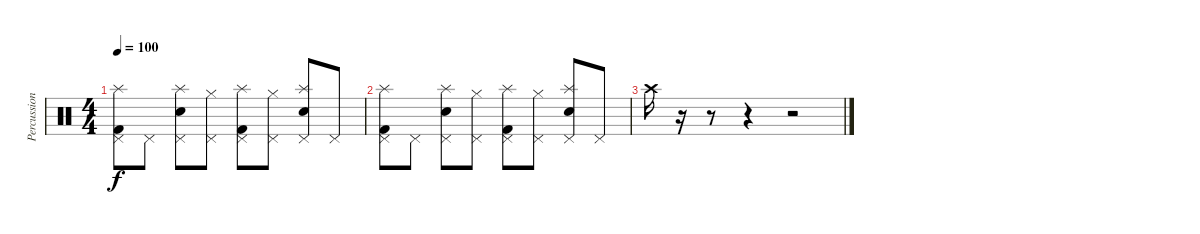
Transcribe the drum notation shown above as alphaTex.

\track ("Percussion" "Percussion") {instrument percussion}
\staff {score}
\articulation defaults
\ts (4 4)
\tempo 100
\clef neutral
\ks c
("Kick (hit) 2" "Pedal Hi-Hat (hit)" "Splash (hit)").8{dy f} "Pedal Hi-Hat (hit)".8 ("Electric Snare (hit)" "Pedal Hi-Hat (hit)" "Splash (hit)").8 ("Hi-Hat (closed)" "Pedal Hi-Hat (hit)").8 ("Kick (hit) 2" "Pedal Hi-Hat (hit)" "Splash (hit)").8 ("Hi-Hat (closed)" "Pedal Hi-Hat (hit)").8 ("Electric Snare (hit)" "Pedal Hi-Hat (hit)" "Splash (hit)").8 "Pedal Hi-Hat (hit)".8 |
("Kick (hit) 2" "Pedal Hi-Hat (hit)" "Splash (hit)").8 "Pedal Hi-Hat (hit)".8 ("Electric Snare (hit)" "Pedal Hi-Hat (hit)" "Splash (hit)").8 ("Hi-Hat (closed)" "Pedal Hi-Hat (hit)").8 ("Kick (hit) 2" "Pedal Hi-Hat (hit)" "Splash (hit)").8 ("Hi-Hat (closed)" "Pedal Hi-Hat (hit)").8 ("Electric Snare (hit)" "Pedal Hi-Hat (hit)" "Splash (hit)").8 "Pedal Hi-Hat (hit)".8 |
"Crash high (hit)".16 r.16 r.8 r.4 r.2
